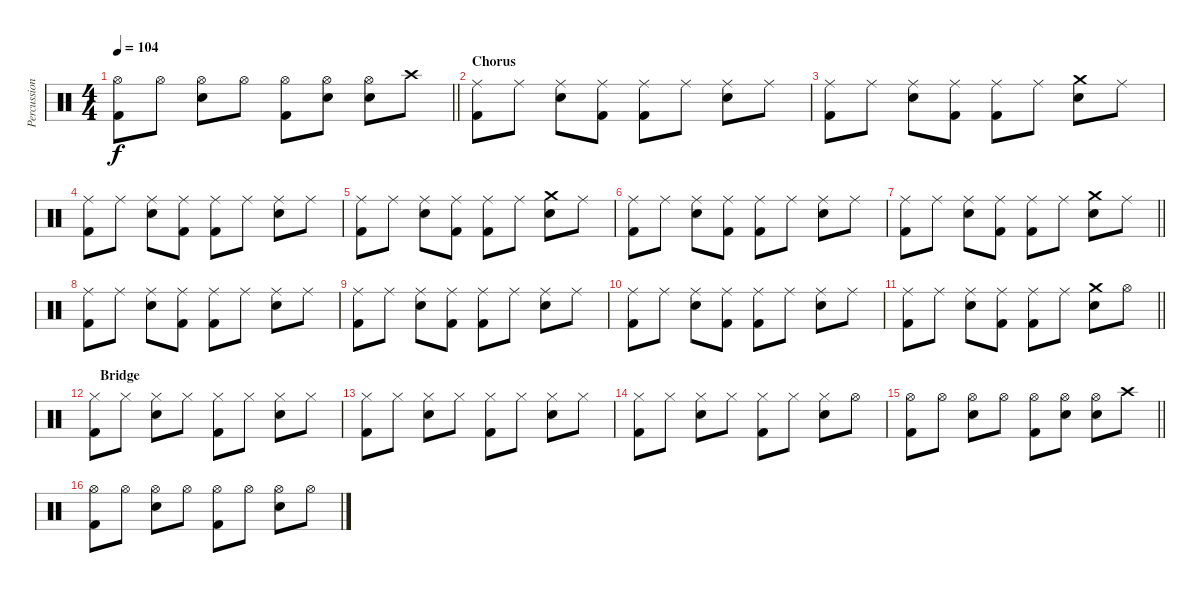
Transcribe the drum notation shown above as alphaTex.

\track ("Percussion" "Percussion") {instrument percussion}
\staff {score}
\articulation defaults
\ts (4 4)
\tempo 104
\clef neutral
\barLineRight lightlight
\ks c
("Kick (hit) 2" "Hi-Hat (open)").8{dy f} "Hi-Hat (open)".8 ("Hi-Hat (open)" "Electric Snare (hit)").8 "Hi-Hat (open)".8 ("Kick (hit) 2" "Hi-Hat (open)").8 ("Hi-Hat (open)" "Electric Snare (hit)").8 ("Hi-Hat (open)" "Electric Snare (hit)").8 "Crash high (hit)".8 |
\section ("" "Chorus ")
("Kick (hit) 2" "Ride (middle)").8 "Ride (middle)".8 ("Ride (middle)" "Electric Snare (hit)").8 ("Kick (hit) 2" "Ride (middle)").8 ("Kick (hit) 2" "Ride (middle)").8 "Ride (middle)".8 ("Ride (middle)" "Electric Snare (hit)").8 "Ride (middle)".8 |
("Kick (hit) 2" "Ride (middle)").8 "Ride (middle)".8 ("Ride (middle)" "Electric Snare (hit)").8 ("Kick (hit) 2" "Ride (middle)").8 ("Kick (hit) 2" "Ride (middle)").8 "Ride (middle)".8 ("Crash medium (hit)" "Electric Snare (hit)").8 "Ride (middle)".8 |
("Kick (hit) 2" "Ride (middle)").8 "Ride (middle)".8 ("Ride (middle)" "Electric Snare (hit)").8 ("Kick (hit) 2" "Ride (middle)").8 ("Kick (hit) 2" "Ride (middle)").8 "Ride (middle)".8 ("Ride (middle)" "Electric Snare (hit)").8 "Ride (middle)".8 |
("Kick (hit) 2" "Ride (middle)").8 "Ride (middle)".8 ("Ride (middle)" "Electric Snare (hit)").8 ("Kick (hit) 2" "Ride (middle)").8 ("Kick (hit) 2" "Ride (middle)").8 "Ride (middle)".8 ("Crash medium (hit)" "Electric Snare (hit)").8 "Ride (middle)".8 |
("Kick (hit) 2" "Ride (middle)").8 "Ride (middle)".8 ("Ride (middle)" "Electric Snare (hit)").8 ("Kick (hit) 2" "Ride (middle)").8 ("Kick (hit) 2" "Ride (middle)").8 "Ride (middle)".8 ("Ride (middle)" "Electric Snare (hit)").8 "Ride (middle)".8 |
\barLineRight lightlight
("Kick (hit) 2" "Ride (middle)").8 "Ride (middle)".8 ("Ride (middle)" "Electric Snare (hit)").8 ("Kick (hit) 2" "Ride (middle)").8 ("Kick (hit) 2" "Ride (middle)").8 "Ride (middle)".8 ("Crash medium (hit)" "Electric Snare (hit)").8 "Ride (middle)".8 |
("Kick (hit) 2" "Ride (middle)").8 "Ride (middle)".8 ("Ride (middle)" "Electric Snare (hit)").8 ("Kick (hit) 2" "Ride (middle)").8 ("Kick (hit) 2" "Ride (middle)").8 "Ride (middle)".8 ("Ride (middle)" "Electric Snare (hit)").8 "Ride (middle)".8 |
("Kick (hit) 2" "Ride (middle)").8 "Ride (middle)".8 ("Ride (middle)" "Electric Snare (hit)").8 ("Kick (hit) 2" "Ride (middle)").8 ("Kick (hit) 2" "Ride (middle)").8 "Ride (middle)".8 ("Ride (middle)" "Electric Snare (hit)").8 "Ride (middle)".8 |
("Kick (hit) 2" "Ride (middle)").8 "Ride (middle)".8 ("Ride (middle)" "Electric Snare (hit)").8 ("Kick (hit) 2" "Ride (middle)").8 ("Kick (hit) 2" "Ride (middle)").8 "Ride (middle)".8 ("Ride (middle)" "Electric Snare (hit)").8 "Ride (middle)".8 |
\barLineRight lightlight
("Kick (hit) 2" "Ride (middle)").8 "Ride (middle)".8 ("Ride (middle)" "Electric Snare (hit)").8 ("Kick (hit) 2" "Ride (middle)").8 ("Kick (hit) 2" "Ride (middle)").8 "Ride (middle)".8 ("Crash medium (hit)" "Electric Snare (hit)").8 "Hi-Hat (open)".8 |
\section ("" "   Bridge")
("Kick (hit) 2" "Hi-Hat (closed)").8 "Hi-Hat (closed)".8 ("Hi-Hat (closed)" "Electric Snare (hit)").8 "Hi-Hat (closed)".8 ("Kick (hit) 2" "Hi-Hat (closed)").8 "Hi-Hat (closed)".8 ("Hi-Hat (closed)" "Electric Snare (hit)").8 "Hi-Hat (closed)".8 |
("Kick (hit) 2" "Hi-Hat (closed)").8 "Hi-Hat (closed)".8 ("Hi-Hat (closed)" "Electric Snare (hit)").8 "Hi-Hat (closed)".8 ("Kick (hit) 2" "Hi-Hat (closed)").8 "Hi-Hat (closed)".8 ("Hi-Hat (closed)" "Electric Snare (hit)").8 "Hi-Hat (closed)".8 |
("Kick (hit) 2" "Hi-Hat (closed)").8 "Hi-Hat (closed)".8 ("Hi-Hat (closed)" "Electric Snare (hit)").8 "Hi-Hat (closed)".8 ("Kick (hit) 2" "Hi-Hat (closed)").8 "Hi-Hat (closed)".8 ("Hi-Hat (closed)" "Electric Snare (hit)").8 "Hi-Hat (open)".8 |
\barLineRight lightlight
("Kick (hit) 2" "Hi-Hat (open)").8 "Hi-Hat (open)".8 ("Hi-Hat (open)" "Electric Snare (hit)").8 "Hi-Hat (open)".8 ("Kick (hit) 2" "Hi-Hat (open)").8 ("Hi-Hat (open)" "Electric Snare (hit)").8 ("Hi-Hat (open)" "Electric Snare (hit)").8 "Crash high (hit)".8 |
("Kick (hit) 2" "Hi-Hat (open)").8 "Hi-Hat (open)".8 ("Hi-Hat (open)" "Electric Snare (hit)").8 "Hi-Hat (open)".8 ("Kick (hit) 2" "Hi-Hat (open)").8 "Hi-Hat (open)".8 ("Hi-Hat (open)" "Electric Snare (hit)").8 "Hi-Hat (open)".8
